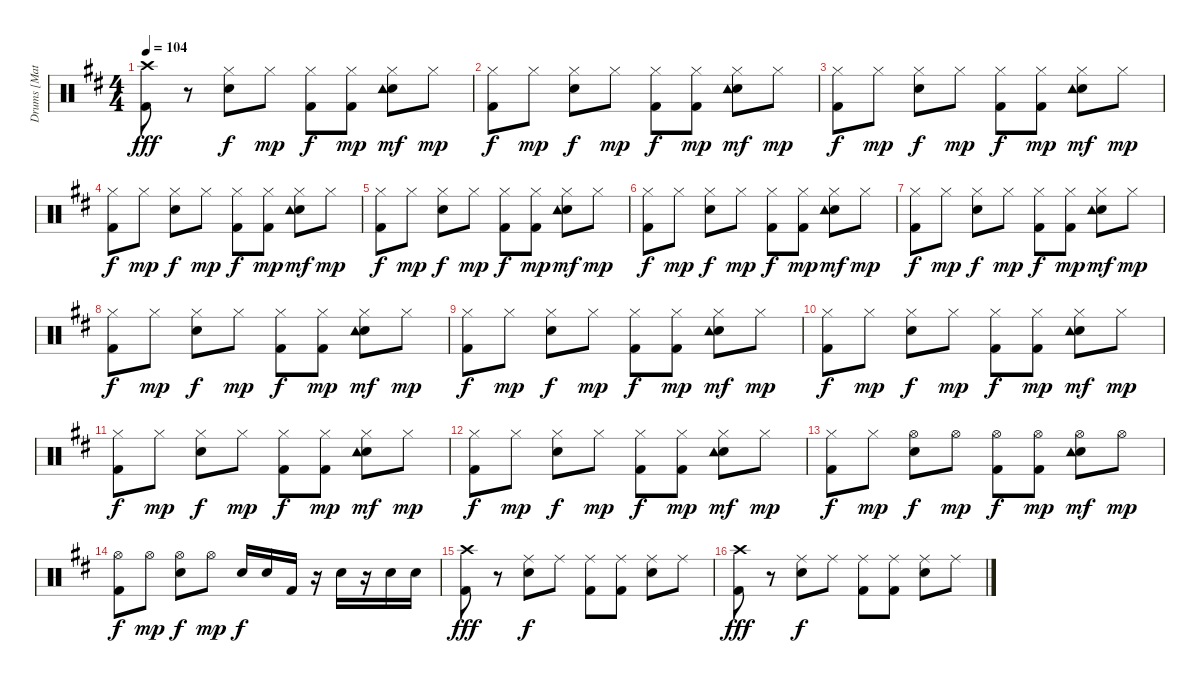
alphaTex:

\track ("Drums [Matt]" "Drums [Mat") {instrument percussion}
\staff {score}
\articulation defaults
\ts (4 4)
\tempo 104
\clef neutral
\ks d
("Kick (hit) 2" "Crash high (hit)").8{dy fff} r.8 ("Hi-Hat (closed)" "Snare (hit) 2").8{dy f} "Hi-Hat (closed)".8{dy mp} ("Hi-Hat (closed)" "Kick (hit) 2").8{dy f} ("Hi-Hat (closed)" "Kick (hit) 2").8{dy mp} ("Hi-Hat (closed)" "Snare (hit) 2" "Tambourine (hit)").8{dy mf} "Hi-Hat (closed)".8{dy mp} |
("Hi-Hat (closed)" "Kick (hit) 2").8{dy f} "Hi-Hat (closed)".8{dy mp} ("Hi-Hat (closed)" "Snare (hit) 2").8{dy f} "Hi-Hat (closed)".8{dy mp} ("Hi-Hat (closed)" "Kick (hit) 2").8{dy f} ("Hi-Hat (closed)" "Kick (hit) 2").8{dy mp} ("Hi-Hat (closed)" "Snare (hit) 2" "Tambourine (hit)").8{dy mf} "Hi-Hat (closed)".8{dy mp} |
("Hi-Hat (closed)" "Kick (hit) 2").8{dy f} "Hi-Hat (closed)".8{dy mp} ("Hi-Hat (closed)" "Snare (hit) 2").8{dy f} "Hi-Hat (closed)".8{dy mp} ("Hi-Hat (closed)" "Kick (hit) 2").8{dy f} ("Hi-Hat (closed)" "Kick (hit) 2").8{dy mp} ("Hi-Hat (closed)" "Snare (hit) 2" "Tambourine (hit)").8{dy mf} "Hi-Hat (closed)".8{dy mp} |
("Hi-Hat (closed)" "Kick (hit) 2").8{dy f} "Hi-Hat (closed)".8{dy mp} ("Hi-Hat (closed)" "Snare (hit) 2").8{dy f} "Hi-Hat (closed)".8{dy mp} ("Hi-Hat (closed)" "Kick (hit) 2").8{dy f} ("Hi-Hat (closed)" "Kick (hit) 2").8{dy mp} ("Hi-Hat (closed)" "Snare (hit) 2" "Tambourine (hit)").8{dy mf} "Hi-Hat (closed)".8{dy mp} |
("Hi-Hat (closed)" "Kick (hit) 2").8{dy f} "Hi-Hat (closed)".8{dy mp} ("Hi-Hat (closed)" "Snare (hit) 2").8{dy f} "Hi-Hat (closed)".8{dy mp} ("Hi-Hat (closed)" "Kick (hit) 2").8{dy f} ("Hi-Hat (closed)" "Kick (hit) 2").8{dy mp} ("Hi-Hat (closed)" "Snare (hit) 2" "Tambourine (hit)").8{dy mf} "Hi-Hat (closed)".8{dy mp} |
("Hi-Hat (closed)" "Kick (hit) 2").8{dy f} "Hi-Hat (closed)".8{dy mp} ("Hi-Hat (closed)" "Snare (hit) 2").8{dy f} "Hi-Hat (closed)".8{dy mp} ("Hi-Hat (closed)" "Kick (hit) 2").8{dy f} ("Hi-Hat (closed)" "Kick (hit) 2").8{dy mp} ("Hi-Hat (closed)" "Snare (hit) 2" "Tambourine (hit)").8{dy mf} "Hi-Hat (closed)".8{dy mp} |
("Hi-Hat (closed)" "Kick (hit) 2").8{dy f} "Hi-Hat (closed)".8{dy mp} ("Hi-Hat (closed)" "Snare (hit) 2").8{dy f} "Hi-Hat (closed)".8{dy mp} ("Hi-Hat (closed)" "Kick (hit) 2").8{dy f} ("Hi-Hat (closed)" "Kick (hit) 2").8{dy mp} ("Hi-Hat (closed)" "Snare (hit) 2" "Tambourine (hit)").8{dy mf} "Hi-Hat (closed)".8{dy mp} |
("Hi-Hat (closed)" "Kick (hit) 2").8{dy f} "Hi-Hat (closed)".8{dy mp} ("Hi-Hat (closed)" "Snare (hit) 2").8{dy f} "Hi-Hat (closed)".8{dy mp} ("Hi-Hat (closed)" "Kick (hit) 2").8{dy f} ("Hi-Hat (closed)" "Kick (hit) 2").8{dy mp} ("Hi-Hat (closed)" "Snare (hit) 2" "Tambourine (hit)").8{dy mf} "Hi-Hat (closed)".8{dy mp} |
("Hi-Hat (closed)" "Kick (hit) 2").8{dy f} "Hi-Hat (closed)".8{dy mp} ("Hi-Hat (closed)" "Snare (hit) 2").8{dy f} "Hi-Hat (closed)".8{dy mp} ("Hi-Hat (closed)" "Kick (hit) 2").8{dy f} ("Hi-Hat (closed)" "Kick (hit) 2").8{dy mp} ("Hi-Hat (closed)" "Snare (hit) 2" "Tambourine (hit)").8{dy mf} "Hi-Hat (closed)".8{dy mp} |
("Hi-Hat (closed)" "Kick (hit) 2").8{dy f} "Hi-Hat (closed)".8{dy mp} ("Hi-Hat (closed)" "Snare (hit) 2").8{dy f} "Hi-Hat (closed)".8{dy mp} ("Hi-Hat (closed)" "Kick (hit) 2").8{dy f} ("Hi-Hat (closed)" "Kick (hit) 2").8{dy mp} ("Hi-Hat (closed)" "Snare (hit) 2" "Tambourine (hit)").8{dy mf} "Hi-Hat (closed)".8{dy mp} |
("Hi-Hat (closed)" "Kick (hit) 2").8{dy f} "Hi-Hat (closed)".8{dy mp} ("Hi-Hat (closed)" "Snare (hit) 2").8{dy f} "Hi-Hat (closed)".8{dy mp} ("Hi-Hat (closed)" "Kick (hit) 2").8{dy f} ("Hi-Hat (closed)" "Kick (hit) 2").8{dy mp} ("Hi-Hat (closed)" "Snare (hit) 2" "Tambourine (hit)").8{dy mf} "Hi-Hat (closed)".8{dy mp} |
("Hi-Hat (closed)" "Kick (hit) 2").8{dy f} "Hi-Hat (closed)".8{dy mp} ("Hi-Hat (closed)" "Snare (hit) 2").8{dy f} "Hi-Hat (closed)".8{dy mp} ("Hi-Hat (closed)" "Kick (hit) 2").8{dy f} ("Hi-Hat (closed)" "Kick (hit) 2").8{dy mp} ("Hi-Hat (closed)" "Snare (hit) 2" "Tambourine (hit)").8{dy mf} "Hi-Hat (closed)".8{dy mp} |
("Hi-Hat (closed)" "Kick (hit) 2").8{dy f} "Hi-Hat (closed)".8{dy mp} ("Hi-Hat (open)" "Snare (hit) 2").8{dy f} "Hi-Hat (open)".8{dy mp} ("Hi-Hat (open)" "Kick (hit) 2").8{dy f} ("Hi-Hat (open)" "Kick (hit) 2").8{dy mp} ("Hi-Hat (open)" "Snare (hit) 2" "Tambourine (hit)").8{dy mf} "Hi-Hat (open)".8{dy mp} |
("Hi-Hat (open)" "Kick (hit) 2").8{dy f} "Hi-Hat (open)".8{dy mp} ("Hi-Hat (open)" "Snare (hit) 2").8{dy f} "Hi-Hat (open)".8{dy mp} "Snare (hit) 2".16{dy f} "Snare (hit) 2".16 "Kick (hit) 2".16 r.16 "Snare (hit) 2".16 r.16 "Snare (hit) 2".16 "Snare (hit) 2".16 |
("Kick (hit) 2" "Crash high (hit)").8{dy fff volume 15} r.8 ("Ride (middle)" "Snare (hit) 2").8{dy f} "Ride (middle)".8 ("Ride (middle)" "Kick (hit) 2").8 ("Ride (middle)" "Kick (hit) 2").8 ("Ride (middle)" "Snare (hit) 2").8 "Ride (middle)".8 |
("Kick (hit) 2" "Crash high (hit)").8{dy fff} r.8 ("Ride (middle)" "Snare (hit) 2").8{dy f} "Ride (middle)".8 ("Ride (middle)" "Kick (hit) 2").8 ("Ride (middle)" "Kick (hit) 2").8 ("Ride (middle)" "Snare (hit) 2").8 "Ride (middle)".8
